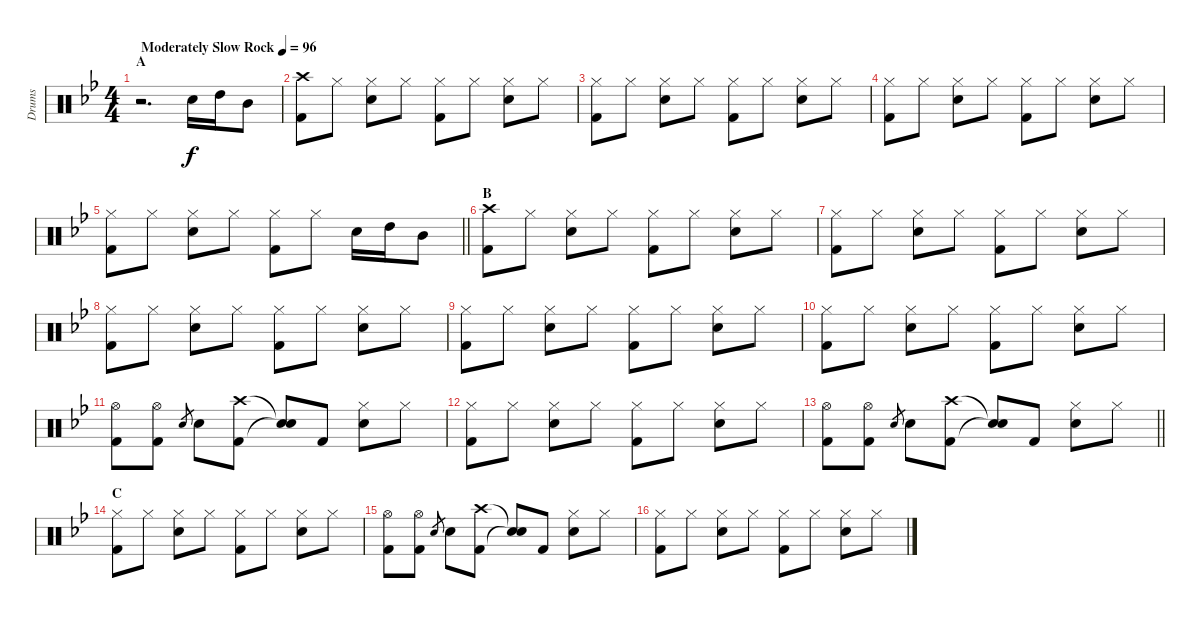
\track ("Drums" "Drums") {instrument percussion}
\staff {score}
\articulation defaults
\ts (4 4)
\section ("" "A")
\tempo (96 "Moderately Slow Rock")
\clef neutral
\ks gminor
r.2{d dy f} "Electric Snare (hit)".16 "High Tom (hit)".16 "Mid Tom (hit)".8 |
("Crash high (hit)" "Kick (hit) 2").8 "Hi-Hat (closed)".8 ("Hi-Hat (closed)" "Electric Snare (hit)").8 "Hi-Hat (closed)".8 ("Hi-Hat (closed)" "Kick (hit) 2").8 "Hi-Hat (closed)".8 ("Hi-Hat (closed)" "Electric Snare (hit)").8 "Hi-Hat (closed)".8 |
("Hi-Hat (closed)" "Kick (hit) 2").8 "Hi-Hat (closed)".8 ("Hi-Hat (closed)" "Electric Snare (hit)").8 "Hi-Hat (closed)".8 ("Hi-Hat (closed)" "Kick (hit) 2").8 "Hi-Hat (closed)".8 ("Hi-Hat (closed)" "Electric Snare (hit)").8 "Hi-Hat (closed)".8 |
("Hi-Hat (closed)" "Kick (hit) 2").8 "Hi-Hat (closed)".8 ("Hi-Hat (closed)" "Electric Snare (hit)").8 "Hi-Hat (closed)".8 ("Hi-Hat (closed)" "Kick (hit) 2").8 "Hi-Hat (closed)".8 ("Hi-Hat (closed)" "Electric Snare (hit)").8 "Hi-Hat (closed)".8 |
\barLineRight lightlight
("Hi-Hat (closed)" "Kick (hit) 2").8 "Hi-Hat (closed)".8 ("Hi-Hat (closed)" "Electric Snare (hit)").8 "Hi-Hat (closed)".8 ("Hi-Hat (closed)" "Kick (hit) 2").8 "Hi-Hat (closed)".8 "Electric Snare (hit)".16 "High Tom (hit)".16 "Mid Tom (hit)".8 |
\section ("" "B")
("Crash high (hit)" "Kick (hit) 2").8 "Hi-Hat (closed)".8 ("Hi-Hat (closed)" "Electric Snare (hit)").8 "Hi-Hat (closed)".8 ("Hi-Hat (closed)" "Kick (hit) 2").8 "Hi-Hat (closed)".8 ("Hi-Hat (closed)" "Electric Snare (hit)").8 "Hi-Hat (closed)".8 |
("Hi-Hat (closed)" "Kick (hit) 2").8 "Hi-Hat (closed)".8 ("Hi-Hat (closed)" "Electric Snare (hit)").8 "Hi-Hat (closed)".8 ("Hi-Hat (closed)" "Kick (hit) 2").8 "Hi-Hat (closed)".8 ("Hi-Hat (closed)" "Electric Snare (hit)").8 "Hi-Hat (closed)".8 |
("Hi-Hat (closed)" "Kick (hit) 2").8 "Hi-Hat (closed)".8 ("Hi-Hat (closed)" "Electric Snare (hit)").8 "Hi-Hat (closed)".8 ("Hi-Hat (closed)" "Kick (hit) 2").8 "Hi-Hat (closed)".8 ("Hi-Hat (closed)" "Electric Snare (hit)").8 "Hi-Hat (closed)".8 |
("Hi-Hat (closed)" "Kick (hit) 2").8 "Hi-Hat (closed)".8 ("Hi-Hat (closed)" "Electric Snare (hit)").8 "Hi-Hat (closed)".8 ("Hi-Hat (closed)" "Kick (hit) 2").8 "Hi-Hat (closed)".8 ("Hi-Hat (closed)" "Electric Snare (hit)").8 "Hi-Hat (closed)".8 |
("Hi-Hat (closed)" "Kick (hit) 2").8 "Hi-Hat (closed)".8 ("Hi-Hat (closed)" "Electric Snare (hit)").8 "Hi-Hat (closed)".8 ("Hi-Hat (closed)" "Kick (hit) 2").8 "Hi-Hat (closed)".8 ("Hi-Hat (closed)" "Electric Snare (hit)").8 "Hi-Hat (closed)".8 |
("Hi-Hat (open)" "Kick (hit) 2").8 ("Hi-Hat (open)" "Kick (hit) 2").8 "Electric Snare (hit)".8{gr} "Electric Snare (hit)".8 ("Crash high (hit)" "Kick (hit) 2").8 ("Snare (hit)"{t} "Snare (hit)"{t}).8 "Kick (hit) 2".8 ("Hi-Hat (closed)" "Electric Snare (hit)").8 "Hi-Hat (closed)".8 |
("Hi-Hat (closed)" "Kick (hit) 2").8 "Hi-Hat (closed)".8 ("Hi-Hat (closed)" "Electric Snare (hit)").8 "Hi-Hat (closed)".8 ("Hi-Hat (closed)" "Kick (hit) 2").8 "Hi-Hat (closed)".8 ("Hi-Hat (closed)" "Electric Snare (hit)").8 "Hi-Hat (closed)".8 |
\barLineRight lightlight
("Hi-Hat (open)" "Kick (hit) 2").8 ("Hi-Hat (open)" "Kick (hit) 2").8 "Electric Snare (hit)".8{gr} "Electric Snare (hit)".8 ("Crash high (hit)" "Kick (hit) 2").8 ("Snare (hit)"{t} "Snare (hit)"{t}).8 "Kick (hit) 2".8 ("Hi-Hat (closed)" "Electric Snare (hit)").8 "Hi-Hat (closed)".8 |
\section ("" "C")
("Hi-Hat (closed)" "Kick (hit) 2").8 "Hi-Hat (closed)".8 ("Hi-Hat (closed)" "Electric Snare (hit)").8 "Hi-Hat (closed)".8 ("Hi-Hat (closed)" "Kick (hit) 2").8 "Hi-Hat (closed)".8 ("Hi-Hat (closed)" "Electric Snare (hit)").8 "Hi-Hat (closed)".8 |
("Hi-Hat (open)" "Kick (hit) 2").8 ("Hi-Hat (open)" "Kick (hit) 2").8 "Electric Snare (hit)".8{gr} "Electric Snare (hit)".8 ("Crash high (hit)" "Kick (hit) 2").8 ("Snare (hit)"{t} "Snare (hit)"{t}).8 "Kick (hit) 2".8 ("Hi-Hat (closed)" "Electric Snare (hit)").8 "Hi-Hat (closed)".8 |
("Hi-Hat (closed)" "Kick (hit) 2").8 "Hi-Hat (closed)".8 ("Hi-Hat (closed)" "Electric Snare (hit)").8 "Hi-Hat (closed)".8 ("Hi-Hat (closed)" "Kick (hit) 2").8 "Hi-Hat (closed)".8 ("Hi-Hat (closed)" "Electric Snare (hit)").8 "Hi-Hat (closed)".8
